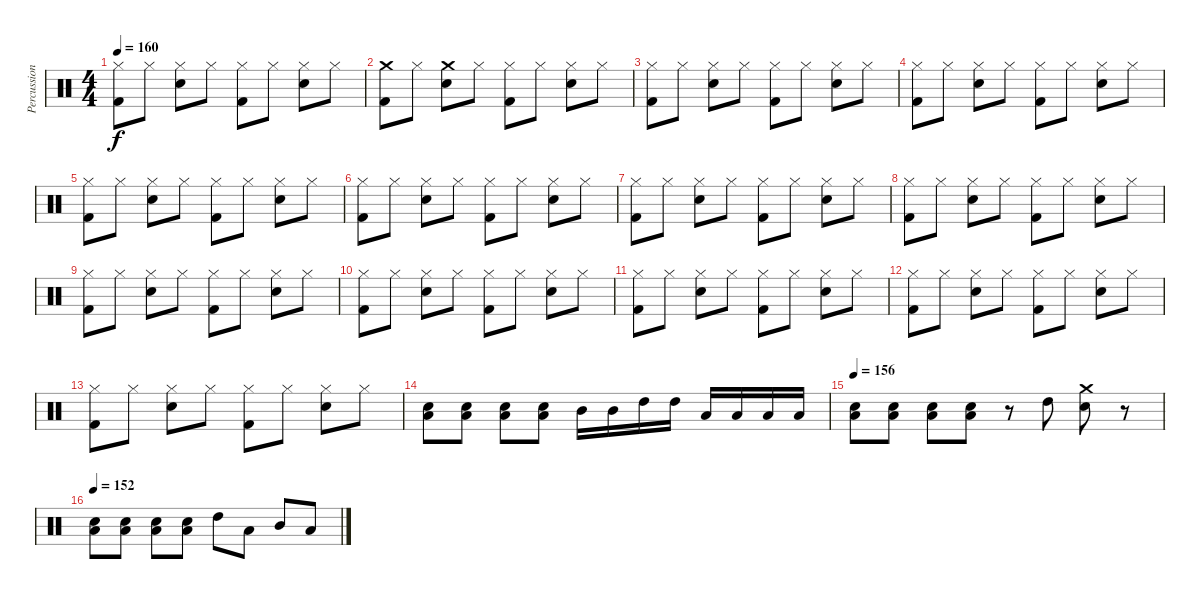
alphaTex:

\track ("Percussion" "Percussion") {instrument percussion}
\staff {score}
\articulation defaults
\ts (4 4)
\tempo 160
\clef neutral
\ks c
("Hi-Hat (closed)" "Kick (hit) 2").8{dy f} "Hi-Hat (closed)".8 ("Hi-Hat (closed)" "Snare (hit) 2").8 "Hi-Hat (closed)".8 ("Hi-Hat (closed)" "Kick (hit) 2").8 "Hi-Hat (closed)".8 ("Hi-Hat (closed)" "Snare (hit) 2").8 "Hi-Hat (closed)".8 |
("Crash medium (hit)" "Kick (hit) 2").8 "Hi-Hat (closed)".8 ("Crash medium (hit)" "Snare (hit) 2").8 "Hi-Hat (closed)".8 ("Hi-Hat (closed)" "Kick (hit) 2").8 "Hi-Hat (closed)".8 ("Hi-Hat (closed)" "Snare (hit) 2").8 "Hi-Hat (closed)".8 |
("Hi-Hat (closed)" "Kick (hit) 2").8 "Hi-Hat (closed)".8 ("Hi-Hat (closed)" "Snare (hit) 2").8 "Hi-Hat (closed)".8 ("Hi-Hat (closed)" "Kick (hit) 2").8 "Hi-Hat (closed)".8 ("Hi-Hat (closed)" "Snare (hit) 2").8 "Hi-Hat (closed)".8 |
("Hi-Hat (closed)" "Kick (hit) 2").8 "Hi-Hat (closed)".8 ("Hi-Hat (closed)" "Snare (hit) 2").8 "Hi-Hat (closed)".8 ("Hi-Hat (closed)" "Kick (hit) 2").8 "Hi-Hat (closed)".8 ("Hi-Hat (closed)" "Snare (hit) 2").8 "Hi-Hat (closed)".8 |
("Hi-Hat (closed)" "Kick (hit) 2").8 "Hi-Hat (closed)".8 ("Hi-Hat (closed)" "Snare (hit) 2").8 "Hi-Hat (closed)".8 ("Hi-Hat (closed)" "Kick (hit) 2").8 "Hi-Hat (closed)".8 ("Hi-Hat (closed)" "Snare (hit) 2").8 "Hi-Hat (closed)".8 |
("Hi-Hat (closed)" "Kick (hit) 2").8 "Hi-Hat (closed)".8 ("Hi-Hat (closed)" "Snare (hit) 2").8 "Hi-Hat (closed)".8 ("Hi-Hat (closed)" "Kick (hit) 2").8 "Hi-Hat (closed)".8 ("Hi-Hat (closed)" "Snare (hit) 2").8 "Hi-Hat (closed)".8 |
("Hi-Hat (closed)" "Kick (hit) 2").8 "Hi-Hat (closed)".8 ("Hi-Hat (closed)" "Snare (hit) 2").8 "Hi-Hat (closed)".8 ("Hi-Hat (closed)" "Kick (hit) 2").8 "Hi-Hat (closed)".8 ("Hi-Hat (closed)" "Snare (hit) 2").8 "Hi-Hat (closed)".8 |
("Hi-Hat (closed)" "Kick (hit) 2").8 "Hi-Hat (closed)".8 ("Hi-Hat (closed)" "Snare (hit) 2").8 "Hi-Hat (closed)".8 ("Hi-Hat (closed)" "Kick (hit) 2").8 "Hi-Hat (closed)".8 ("Hi-Hat (closed)" "Snare (hit) 2").8 "Hi-Hat (closed)".8 |
("Hi-Hat (closed)" "Kick (hit) 2").8 "Hi-Hat (closed)".8 ("Hi-Hat (closed)" "Snare (hit) 2").8 "Hi-Hat (closed)".8 ("Hi-Hat (closed)" "Kick (hit) 2").8 "Hi-Hat (closed)".8 ("Hi-Hat (closed)" "Snare (hit) 2").8 "Hi-Hat (closed)".8 |
("Hi-Hat (closed)" "Kick (hit) 2").8 "Hi-Hat (closed)".8 ("Hi-Hat (closed)" "Snare (hit) 2").8 "Hi-Hat (closed)".8 ("Hi-Hat (closed)" "Kick (hit) 2").8 "Hi-Hat (closed)".8 ("Hi-Hat (closed)" "Snare (hit) 2").8 "Hi-Hat (closed)".8 |
("Hi-Hat (closed)" "Kick (hit) 2").8 "Hi-Hat (closed)".8 ("Hi-Hat (closed)" "Snare (hit) 2").8 "Hi-Hat (closed)".8 ("Hi-Hat (closed)" "Kick (hit) 2").8 "Hi-Hat (closed)".8 ("Hi-Hat (closed)" "Snare (hit) 2").8 "Hi-Hat (closed)".8 |
("Hi-Hat (closed)" "Kick (hit) 2").8 "Hi-Hat (closed)".8 ("Hi-Hat (closed)" "Snare (hit) 2").8 "Hi-Hat (closed)".8 ("Hi-Hat (closed)" "Kick (hit) 2").8 "Hi-Hat (closed)".8 ("Hi-Hat (closed)" "Snare (hit) 2").8 "Hi-Hat (closed)".8 |
("Hi-Hat (closed)" "Kick (hit) 2").8 "Hi-Hat (closed)".8 ("Hi-Hat (closed)" "Snare (hit) 2").8 "Hi-Hat (closed)".8 ("Hi-Hat (closed)" "Kick (hit) 2").8 "Hi-Hat (closed)".8 ("Hi-Hat (closed)" "Snare (hit) 2").8 "Hi-Hat (closed)".8 |
("Snare (hit) 2" "Low Floor Tom (hit)").8 ("Snare (hit) 2" "Low Floor Tom (hit)").8 ("Snare (hit) 2" "Low Floor Tom (hit)").8 ("Snare (hit) 2" "Low Floor Tom (hit)").8 "Mid Tom (hit)".16 "Mid Tom (hit)".16 "High Tom (hit)".16 "High Tom (hit)".16 "Low Floor Tom (hit)".16 "Low Floor Tom (hit)".16 "Low Floor Tom (hit)".16 "Low Floor Tom (hit)".16 |
\tempo 156
("Snare (hit) 2" "Low Floor Tom (hit)").8 ("Snare (hit) 2" "Low Floor Tom (hit)").8 ("Snare (hit) 2" "Low Floor Tom (hit)").8 ("Snare (hit) 2" "Low Floor Tom (hit)").8 r.8 "High Tom (hit)".8 ("Crash medium (hit)" "Snare (hit) 2").8 r.8 |
\tempo 152
("Snare (hit) 2" "Low Floor Tom (hit)").8 ("Snare (hit) 2" "Low Floor Tom (hit)").8 ("Snare (hit) 2" "Low Floor Tom (hit)").8 ("Snare (hit) 2" "Low Floor Tom (hit)").8 "High Tom (hit)".8 "Low Floor Tom (hit)".8 "Mid Tom (hit)".8 "Low Floor Tom (hit)".8
